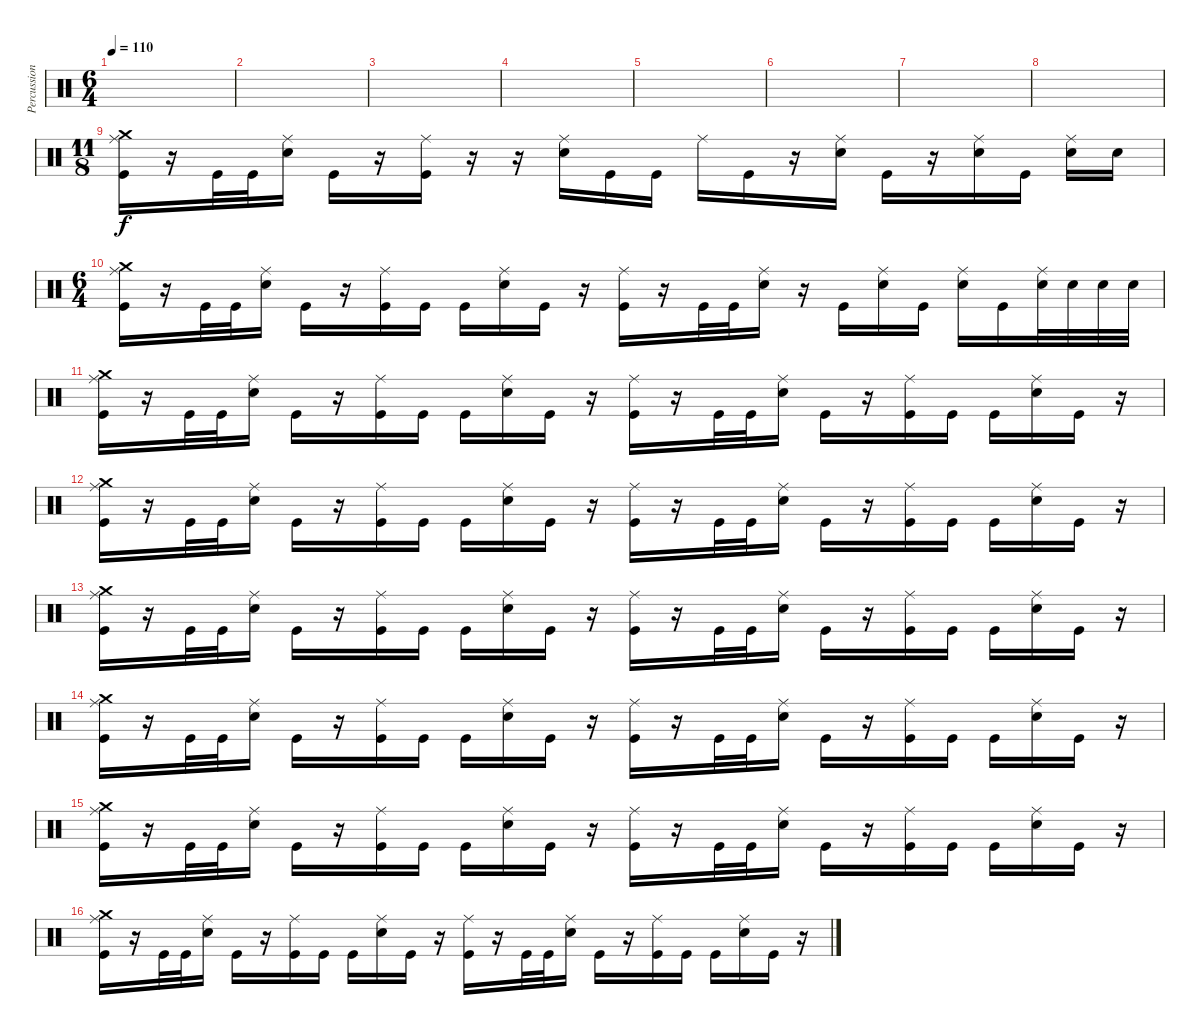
\track ("Percussion" "Percussion") {instrument percussion}
\staff {score}
\articulation defaults
\ts (6 4)
\tempo 110
\clef neutral
\ks c
|
|
|
|
|
|
|
|
\ts (11 8)
("Ride (middle)" "Crash medium (hit)" "Kick (hit)").16{dy f} r.16 "Kick (hit)".32 "Kick (hit)".32 ("Ride (middle)" "Electric Snare (hit)").16 "Kick (hit)".16 r.16 ("Ride (middle)" "Kick (hit)").16 r.16 r.16 ("Ride (middle)" "Electric Snare (hit)").16 "Kick (hit)".16 "Kick (hit)".16 "Ride (middle)".16 "Kick (hit)".16 r.16 ("Ride (middle)" "Electric Snare (hit)").16 "Kick (hit)".16 r.16 ("Ride (middle)" "Electric Snare (hit)").16 "Kick (hit)".16 ("Ride (middle)" "Electric Snare (hit)").16 "Electric Snare (hit)".16 |
\ts (6 4)
("Ride (middle)" "Crash medium (hit)" "Kick (hit)").16 r.16 "Kick (hit)".32 "Kick (hit)".32 ("Ride (middle)" "Electric Snare (hit)").16 "Kick (hit)".16 r.16 ("Ride (middle)" "Kick (hit)").16 "Kick (hit)".16 "Kick (hit)".16 ("Ride (middle)" "Electric Snare (hit)").16 "Kick (hit)".16 r.16 ("Ride (middle)" "Kick (hit)").16 r.16 "Kick (hit)".32 "Kick (hit)".32 ("Ride (middle)" "Electric Snare (hit)").16 r.16 "Kick (hit)".16 ("Ride (middle)" "Electric Snare (hit)").16 "Kick (hit)".16 ("Ride (middle)" "Electric Snare (hit)").16 "Kick (hit)".16 ("Ride (middle)" "Electric Snare (hit)").32 "Electric Snare (hit)".32 "Electric Snare (hit)".32 "Electric Snare (hit)".32 |
("Ride (middle)" "Crash medium (hit)" "Kick (hit)").16 r.16 "Kick (hit)".32 "Kick (hit)".32 ("Ride (middle)" "Electric Snare (hit)").16 "Kick (hit)".16 r.16 ("Ride (middle)" "Kick (hit)").16 "Kick (hit)".16 "Kick (hit)".16 ("Ride (middle)" "Electric Snare (hit)").16 "Kick (hit)".16 r.16 ("Ride (middle)" "Kick (hit)").16 r.16 "Kick (hit)".32 "Kick (hit)".32 ("Ride (middle)" "Electric Snare (hit)").16 "Kick (hit)".16 r.16 ("Ride (middle)" "Kick (hit)").16 "Kick (hit)".16 "Kick (hit)".16 ("Ride (middle)" "Electric Snare (hit)").16 "Kick (hit)".16 r.16 |
("Ride (middle)" "Crash medium (hit)" "Kick (hit)").16 r.16 "Kick (hit)".32 "Kick (hit)".32 ("Ride (middle)" "Electric Snare (hit)").16 "Kick (hit)".16 r.16 ("Ride (middle)" "Kick (hit)").16 "Kick (hit)".16 "Kick (hit)".16 ("Ride (middle)" "Electric Snare (hit)").16 "Kick (hit)".16 r.16 ("Ride (middle)" "Kick (hit)").16 r.16 "Kick (hit)".32 "Kick (hit)".32 ("Ride (middle)" "Electric Snare (hit)").16 "Kick (hit)".16 r.16 ("Ride (middle)" "Kick (hit)").16 "Kick (hit)".16 "Kick (hit)".16 ("Ride (middle)" "Electric Snare (hit)").16 "Kick (hit)".16 r.16 |
("Ride (middle)" "Crash medium (hit)" "Kick (hit)").16 r.16 "Kick (hit)".32 "Kick (hit)".32 ("Ride (middle)" "Electric Snare (hit)").16 "Kick (hit)".16 r.16 ("Ride (middle)" "Kick (hit)").16 "Kick (hit)".16 "Kick (hit)".16 ("Ride (middle)" "Electric Snare (hit)").16 "Kick (hit)".16 r.16 ("Ride (middle)" "Kick (hit)").16 r.16 "Kick (hit)".32 "Kick (hit)".32 ("Ride (middle)" "Electric Snare (hit)").16 "Kick (hit)".16 r.16 ("Ride (middle)" "Kick (hit)").16 "Kick (hit)".16 "Kick (hit)".16 ("Ride (middle)" "Electric Snare (hit)").16 "Kick (hit)".16 r.16 |
("Ride (middle)" "Crash medium (hit)" "Kick (hit)").16 r.16 "Kick (hit)".32 "Kick (hit)".32 ("Ride (middle)" "Electric Snare (hit)").16 "Kick (hit)".16 r.16 ("Ride (middle)" "Kick (hit)").16 "Kick (hit)".16 "Kick (hit)".16 ("Ride (middle)" "Electric Snare (hit)").16 "Kick (hit)".16 r.16 ("Ride (middle)" "Kick (hit)").16 r.16 "Kick (hit)".32 "Kick (hit)".32 ("Ride (middle)" "Electric Snare (hit)").16 "Kick (hit)".16 r.16 ("Ride (middle)" "Kick (hit)").16 "Kick (hit)".16 "Kick (hit)".16 ("Ride (middle)" "Electric Snare (hit)").16 "Kick (hit)".16 r.16 |
("Ride (middle)" "Crash medium (hit)" "Kick (hit)").16 r.16 "Kick (hit)".32 "Kick (hit)".32 ("Ride (middle)" "Electric Snare (hit)").16 "Kick (hit)".16 r.16 ("Ride (middle)" "Kick (hit)").16 "Kick (hit)".16 "Kick (hit)".16 ("Ride (middle)" "Electric Snare (hit)").16 "Kick (hit)".16 r.16 ("Ride (middle)" "Kick (hit)").16 r.16 "Kick (hit)".32 "Kick (hit)".32 ("Ride (middle)" "Electric Snare (hit)").16 "Kick (hit)".16 r.16 ("Ride (middle)" "Kick (hit)").16 "Kick (hit)".16 "Kick (hit)".16 ("Ride (middle)" "Electric Snare (hit)").16 "Kick (hit)".16 r.16 |
("Ride (middle)" "Crash medium (hit)" "Kick (hit)").16 r.16 "Kick (hit)".32 "Kick (hit)".32 ("Ride (middle)" "Electric Snare (hit)").16 "Kick (hit)".16 r.16 ("Ride (middle)" "Kick (hit)").16 "Kick (hit)".16 "Kick (hit)".16 ("Ride (middle)" "Electric Snare (hit)").16 "Kick (hit)".16 r.16 ("Ride (middle)" "Kick (hit)").16 r.16 "Kick (hit)".32 "Kick (hit)".32 ("Ride (middle)" "Electric Snare (hit)").16 "Kick (hit)".16 r.16 ("Ride (middle)" "Kick (hit)").16 "Kick (hit)".16 "Kick (hit)".16 ("Ride (middle)" "Electric Snare (hit)").16 "Kick (hit)".16 r.16
